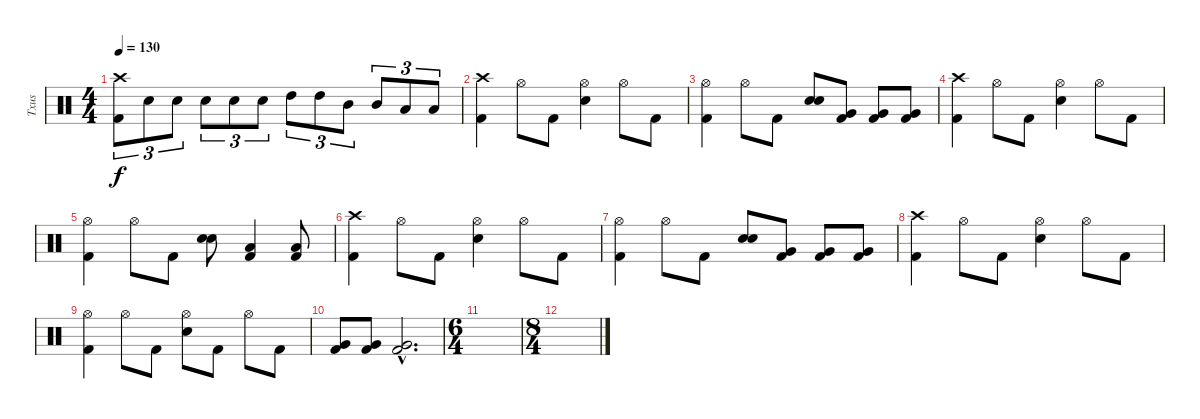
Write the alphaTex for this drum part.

\track ("Txus" "Txus") {instrument percussion}
\staff {score}
\articulation defaults
\ts (4 4)
\tempo 130
\clef neutral
\ks c
("Kick (hit) 2" "Crash high (hit)").8{tu (3 2) dy f} "Electric Snare (hit)".8{tu (3 2)} "Electric Snare (hit)".8{tu (3 2)} "Electric Snare (hit)".8{tu (3 2)} "Electric Snare (hit)".8{tu (3 2)} "Electric Snare (hit)".8{tu (3 2)} "High Tom (hit)".8{tu (3 2)} "High Tom (hit)".8{tu (3 2)} "Mid Tom (hit)".8{tu (3 2)} "Mid Tom (hit)".8{tu (3 2)} "Low Tom (hit)".8{tu (3 2)} "Low Tom (hit)".8{tu (3 2)} |
("Kick (hit) 2" "Crash high (hit)").4 "Hi-Hat (open)".8 "Kick (hit) 2".8 ("Electric Snare (hit)" "Hi-Hat (open)").4 "Hi-Hat (open)".8 "Kick (hit) 2".8 |
("Kick (hit) 2" "Hi-Hat (open)").4 "Hi-Hat (open)".8 "Kick (hit) 2".8 ("Electric Snare (hit)" "Snare (hit) 2").8 ("Kick (hit) 2" "Very Low Tom (hit)").8 ("Kick (hit) 2" "Very Low Tom (hit)").8 ("Kick (hit) 2" "Very Low Tom (hit)").8 |
("Kick (hit) 2" "Crash high (hit)").4 "Hi-Hat (open)".8 "Kick (hit) 2".8 ("Electric Snare (hit)" "Hi-Hat (open)").4 "Hi-Hat (open)".8 "Kick (hit) 2".8 |
("Kick (hit) 2" "Hi-Hat (open)").4 "Hi-Hat (open)".8 "Kick (hit) 2".8 ("Electric Snare (hit)" "Snare (hit) 2").8 ("Kick (hit) 2" "Low Tom (hit)").4 ("Kick (hit) 2" "Low Tom (hit)").8 |
("Kick (hit) 2" "Crash high (hit)").4 "Hi-Hat (open)".8 "Kick (hit) 2".8 ("Electric Snare (hit)" "Hi-Hat (open)").4 "Hi-Hat (open)".8 "Kick (hit) 2".8 |
("Kick (hit) 2" "Hi-Hat (open)").4 "Hi-Hat (open)".8 "Kick (hit) 2".8 ("Electric Snare (hit)" "Snare (hit) 2").8 ("Kick (hit) 2" "Very Low Tom (hit)").8 ("Kick (hit) 2" "Very Low Tom (hit)").8 ("Kick (hit) 2" "Very Low Tom (hit)").8 |
("Kick (hit) 2" "Crash high (hit)").4 "Hi-Hat (open)".8 "Kick (hit) 2".8 ("Electric Snare (hit)" "Hi-Hat (open)").4 "Hi-Hat (open)".8 "Kick (hit) 2".8 |
("Kick (hit) 2" "Hi-Hat (open)").4 "Hi-Hat (open)".8 "Kick (hit) 2".8 ("Electric Snare (hit)" "Hi-Hat (open)").8 "Kick (hit) 2".8 "Hi-Hat (open)".8 "Kick (hit) 2".8 |
("Kick (hit) 2" "Very Low Tom (hit)").8 ("Kick (hit) 2" "Very Low Tom (hit)").8 ("Kick (hit) 2"{hac} "Very Low Tom (hit)"{hac}).2{d} |
\ts (6 4)
|
\ts (8 4)
